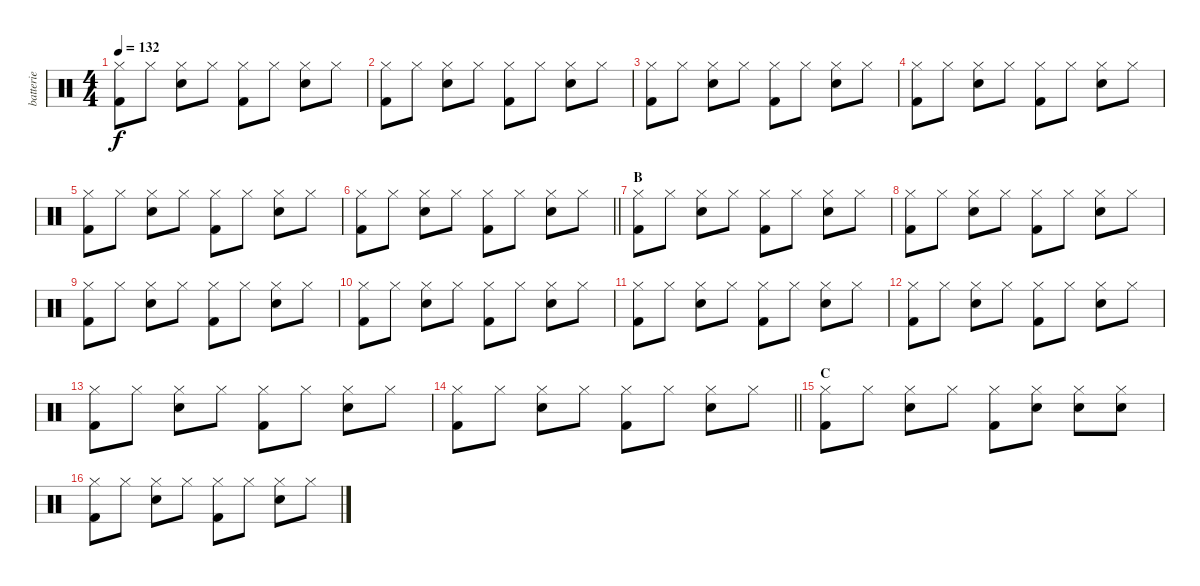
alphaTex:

\track ("batterie" "batterie") {instrument percussion}
\staff {score}
\articulation defaults
\ts (4 4)
\tempo 132
\clef neutral
\ks c
("Hi-Hat (closed)" "Kick (hit) 2").8{dy f} "Hi-Hat (closed)".8 ("Hi-Hat (closed)" "Electric Snare (hit)").8 "Hi-Hat (closed)".8 ("Hi-Hat (closed)" "Kick (hit) 2").8 "Hi-Hat (closed)".8 ("Hi-Hat (closed)" "Electric Snare (hit)").8 "Hi-Hat (closed)".8 |
("Hi-Hat (closed)" "Kick (hit) 2").8 "Hi-Hat (closed)".8 ("Hi-Hat (closed)" "Electric Snare (hit)").8 "Hi-Hat (closed)".8 ("Hi-Hat (closed)" "Kick (hit) 2").8 "Hi-Hat (closed)".8 ("Hi-Hat (closed)" "Electric Snare (hit)").8 "Hi-Hat (closed)".8 |
("Hi-Hat (closed)" "Kick (hit) 2").8 "Hi-Hat (closed)".8 ("Hi-Hat (closed)" "Electric Snare (hit)").8 "Hi-Hat (closed)".8 ("Hi-Hat (closed)" "Kick (hit) 2").8 "Hi-Hat (closed)".8 ("Hi-Hat (closed)" "Electric Snare (hit)").8 "Hi-Hat (closed)".8 |
("Hi-Hat (closed)" "Kick (hit) 2").8 "Hi-Hat (closed)".8 ("Hi-Hat (closed)" "Electric Snare (hit)").8 "Hi-Hat (closed)".8 ("Hi-Hat (closed)" "Kick (hit) 2").8 "Hi-Hat (closed)".8 ("Hi-Hat (closed)" "Electric Snare (hit)").8 "Hi-Hat (closed)".8 |
("Hi-Hat (closed)" "Kick (hit) 2").8 "Hi-Hat (closed)".8 ("Hi-Hat (closed)" "Electric Snare (hit)").8 "Hi-Hat (closed)".8 ("Hi-Hat (closed)" "Kick (hit) 2").8 "Hi-Hat (closed)".8 ("Hi-Hat (closed)" "Electric Snare (hit)").8 "Hi-Hat (closed)".8 |
\barLineRight lightlight
("Hi-Hat (closed)" "Kick (hit) 2").8 "Hi-Hat (closed)".8 ("Hi-Hat (closed)" "Electric Snare (hit)").8 "Hi-Hat (closed)".8 ("Hi-Hat (closed)" "Kick (hit) 2").8 "Hi-Hat (closed)".8 ("Hi-Hat (closed)" "Electric Snare (hit)").8 "Hi-Hat (closed)".8 |
\section ("" "В")
("Hi-Hat (closed)" "Kick (hit) 2").8 "Hi-Hat (closed)".8 ("Hi-Hat (closed)" "Electric Snare (hit)").8 "Hi-Hat (closed)".8 ("Hi-Hat (closed)" "Kick (hit) 2").8 "Hi-Hat (closed)".8 ("Hi-Hat (closed)" "Electric Snare (hit)").8 "Hi-Hat (closed)".8 |
("Hi-Hat (closed)" "Kick (hit) 2").8 "Hi-Hat (closed)".8 ("Hi-Hat (closed)" "Electric Snare (hit)").8 "Hi-Hat (closed)".8 ("Hi-Hat (closed)" "Kick (hit) 2").8 "Hi-Hat (closed)".8 ("Hi-Hat (closed)" "Electric Snare (hit)").8 "Hi-Hat (closed)".8 |
("Hi-Hat (closed)" "Kick (hit) 2").8 "Hi-Hat (closed)".8 ("Hi-Hat (closed)" "Electric Snare (hit)").8 "Hi-Hat (closed)".8 ("Hi-Hat (closed)" "Kick (hit) 2").8 "Hi-Hat (closed)".8 ("Hi-Hat (closed)" "Electric Snare (hit)").8 "Hi-Hat (closed)".8 |
("Hi-Hat (closed)" "Kick (hit) 2").8 "Hi-Hat (closed)".8 ("Hi-Hat (closed)" "Electric Snare (hit)").8 "Hi-Hat (closed)".8 ("Hi-Hat (closed)" "Kick (hit) 2").8 "Hi-Hat (closed)".8 ("Hi-Hat (closed)" "Electric Snare (hit)").8 "Hi-Hat (closed)".8 |
("Hi-Hat (closed)" "Kick (hit) 2").8 "Hi-Hat (closed)".8 ("Hi-Hat (closed)" "Electric Snare (hit)").8 "Hi-Hat (closed)".8 ("Hi-Hat (closed)" "Kick (hit) 2").8 "Hi-Hat (closed)".8 ("Hi-Hat (closed)" "Electric Snare (hit)").8 "Hi-Hat (closed)".8 |
("Hi-Hat (closed)" "Kick (hit) 2").8 "Hi-Hat (closed)".8 ("Hi-Hat (closed)" "Electric Snare (hit)").8 "Hi-Hat (closed)".8 ("Hi-Hat (closed)" "Kick (hit) 2").8 "Hi-Hat (closed)".8 ("Hi-Hat (closed)" "Electric Snare (hit)").8 "Hi-Hat (closed)".8 |
("Hi-Hat (closed)" "Kick (hit) 2").8 "Hi-Hat (closed)".8 ("Hi-Hat (closed)" "Electric Snare (hit)").8 "Hi-Hat (closed)".8 ("Hi-Hat (closed)" "Kick (hit) 2").8 "Hi-Hat (closed)".8 ("Hi-Hat (closed)" "Electric Snare (hit)").8 "Hi-Hat (closed)".8 |
\barLineRight lightlight
("Hi-Hat (closed)" "Kick (hit) 2").8 "Hi-Hat (closed)".8 ("Hi-Hat (closed)" "Electric Snare (hit)").8 "Hi-Hat (closed)".8 ("Hi-Hat (closed)" "Kick (hit) 2").8 "Hi-Hat (closed)".8 ("Hi-Hat (closed)" "Electric Snare (hit)").8 "Hi-Hat (closed)".8 |
\section ("" "С")
("Hi-Hat (closed)" "Kick (hit) 2").8 "Hi-Hat (closed)".8 ("Hi-Hat (closed)" "Electric Snare (hit)").8 "Hi-Hat (closed)".8 ("Hi-Hat (closed)" "Kick (hit) 2").8 ("Hi-Hat (closed)" "Electric Snare (hit)").8 ("Hi-Hat (closed)" "Electric Snare (hit)").8 ("Hi-Hat (closed)" "Electric Snare (hit)").8 |
("Hi-Hat (closed)" "Kick (hit) 2").8 "Hi-Hat (closed)".8 ("Hi-Hat (closed)" "Electric Snare (hit)").8 "Hi-Hat (closed)".8 ("Hi-Hat (closed)" "Kick (hit) 2").8 "Hi-Hat (closed)".8 ("Hi-Hat (closed)" "Electric Snare (hit)").8 "Hi-Hat (closed)".8
